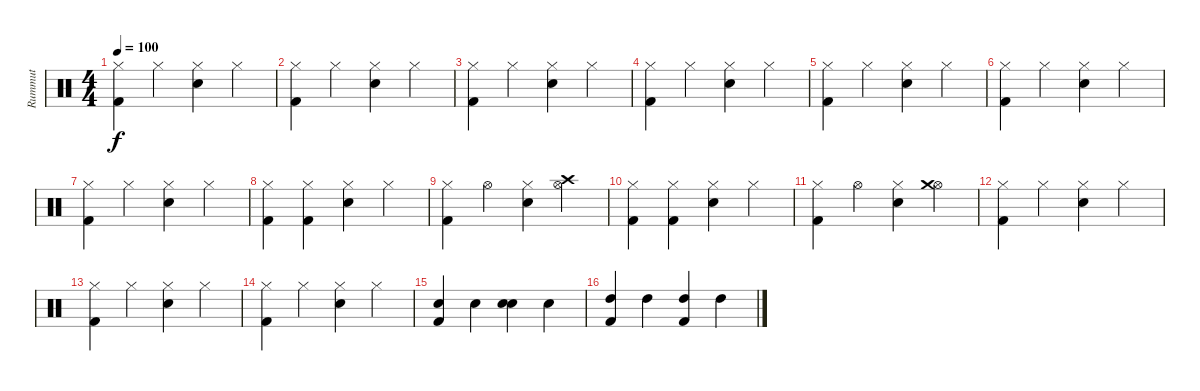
\track ("Rummut" "Rummut") {instrument percussion}
\staff {score}
\articulation defaults
\ts (4 4)
\tempo 100
\clef neutral
\ks c
("Hi-Hat (closed)" "Kick (hit) 2").4{dy f} "Hi-Hat (closed)".4 ("Hi-Hat (closed)" "Snare (hit) 2").4 "Hi-Hat (closed)".4 |
("Hi-Hat (closed)" "Kick (hit) 2").4 "Hi-Hat (closed)".4 ("Hi-Hat (closed)" "Snare (hit) 2").4 "Hi-Hat (closed)".4 |
("Hi-Hat (closed)" "Kick (hit) 2").4 "Hi-Hat (closed)".4 ("Hi-Hat (closed)" "Snare (hit) 2").4 "Hi-Hat (closed)".4 |
("Hi-Hat (closed)" "Kick (hit) 2").4 "Hi-Hat (closed)".4 ("Hi-Hat (closed)" "Snare (hit) 2").4 "Hi-Hat (closed)".4 |
("Hi-Hat (closed)" "Kick (hit) 2").4 "Hi-Hat (closed)".4 ("Hi-Hat (closed)" "Snare (hit) 2").4 "Hi-Hat (closed)".4 |
("Hi-Hat (closed)" "Kick (hit) 2").4 "Hi-Hat (closed)".4 ("Hi-Hat (closed)" "Snare (hit) 2").4 "Hi-Hat (closed)".4 |
("Hi-Hat (closed)" "Kick (hit) 2").4 "Hi-Hat (closed)".4 ("Hi-Hat (closed)" "Snare (hit) 2").4 "Hi-Hat (closed)".4 |
("Hi-Hat (closed)" "Kick (hit) 2").4 ("Hi-Hat (closed)" "Kick (hit) 2").4 ("Hi-Hat (closed)" "Snare (hit) 2").4 "Hi-Hat (closed)".4 |
("Hi-Hat (closed)" "Kick (hit) 2").4 "Hi-Hat (open)".4 ("Hi-Hat (closed)" "Snare (hit) 2").4 ("Hi-Hat (open)" "Crash high (hit)").4 |
("Hi-Hat (closed)" "Kick (hit) 2").4 ("Hi-Hat (closed)" "Kick (hit) 2").4 ("Hi-Hat (closed)" "Snare (hit) 2").4 "Hi-Hat (closed)".4 |
("Hi-Hat (closed)" "Kick (hit) 2").4 "Hi-Hat (open)".4 ("Hi-Hat (closed)" "Snare (hit) 2").4 ("Hi-Hat (open)" "Crash medium (hit)").4 |
("Hi-Hat (closed)" "Kick (hit) 2").4 "Hi-Hat (closed)".4 ("Hi-Hat (closed)" "Snare (hit) 2").4 "Hi-Hat (closed)".4 |
("Hi-Hat (closed)" "Kick (hit) 2").4 "Hi-Hat (closed)".4 ("Hi-Hat (closed)" "Snare (hit) 2").4 "Hi-Hat (closed)".4 |
("Hi-Hat (closed)" "Kick (hit) 2").4 "Hi-Hat (closed)".4 ("Hi-Hat (closed)" "Snare (hit) 2").4 "Hi-Hat (closed)".4 |
("Snare (hit) 2" "Kick (hit) 2").4 "Snare (hit) 2".4 ("Snare (hit) 2" "Snare (hit) 2").4 "Snare (hit) 2".4 |
("High Tom (hit)" "Kick (hit) 2").4 "High Tom (hit)".4 ("High Tom (hit)" "Kick (hit) 2").4 "High Tom (hit)".4
